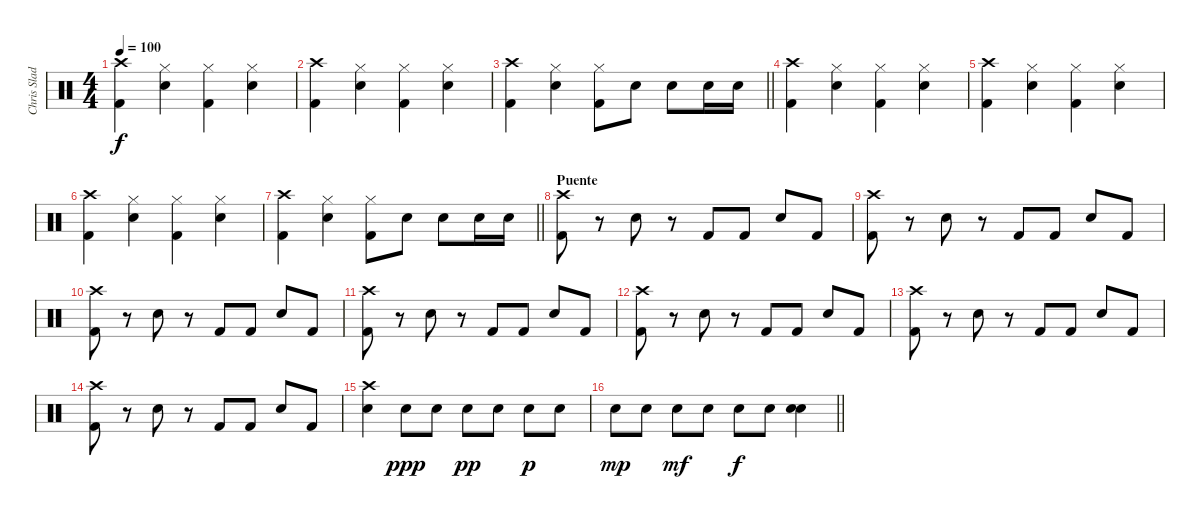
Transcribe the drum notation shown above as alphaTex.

\track ("Chris Slade" "Chris Slad") {instrument percussion}
\staff {score}
\articulation defaults
\ts (4 4)
\tempo 100
\clef neutral
\ks c
("Kick (hit) 2" "Crash high (hit)").4{dy f} ("Snare (hit) 2" "Hi-Hat (closed)").4 ("Kick (hit) 2" "Hi-Hat (closed)").4 ("Snare (hit) 2" "Hi-Hat (closed)").4 |
("Kick (hit) 2" "Crash high (hit)").4 ("Snare (hit) 2" "Hi-Hat (closed)").4 ("Kick (hit) 2" "Hi-Hat (closed)").4 ("Snare (hit) 2" "Hi-Hat (closed)").4 |
\barLineRight lightlight
("Kick (hit) 2" "Crash high (hit)").4 ("Snare (hit) 2" "Hi-Hat (closed)").4 ("Kick (hit) 2" "Hi-Hat (closed)").8 "Snare (hit) 2".8 "Snare (hit) 2".8 "Snare (hit) 2".16 "Snare (hit) 2".16 |
("Kick (hit) 2" "Crash high (hit)").4 ("Snare (hit) 2" "Hi-Hat (closed)").4 ("Kick (hit) 2" "Hi-Hat (closed)").4 ("Snare (hit) 2" "Hi-Hat (closed)").4 |
("Kick (hit) 2" "Crash high (hit)").4 ("Snare (hit) 2" "Hi-Hat (closed)").4 ("Kick (hit) 2" "Hi-Hat (closed)").4 ("Snare (hit) 2" "Hi-Hat (closed)").4 |
("Kick (hit) 2" "Crash high (hit)").4 ("Snare (hit) 2" "Hi-Hat (closed)").4 ("Kick (hit) 2" "Hi-Hat (closed)").4 ("Snare (hit) 2" "Hi-Hat (closed)").4 |
\barLineRight lightlight
("Kick (hit) 2" "Crash high (hit)").4 ("Snare (hit) 2" "Hi-Hat (closed)").4 ("Kick (hit) 2" "Hi-Hat (closed)").8 "Snare (hit) 2".8 "Snare (hit) 2".8 "Snare (hit) 2".16 "Snare (hit) 2".16 |
\section ("" "Puente")
("Kick (hit) 2" "Crash high (hit)").8 r.8 "Snare (hit) 2".8 r.8 "Kick (hit) 2".8 "Kick (hit) 2".8 "Snare (hit) 2".8 "Kick (hit) 2".8 |
("Kick (hit) 2" "Crash high (hit)").8 r.8 "Snare (hit) 2".8 r.8 "Kick (hit) 2".8 "Kick (hit) 2".8 "Snare (hit) 2".8 "Kick (hit) 2".8 |
("Kick (hit) 2" "Crash high (hit)").8 r.8 "Snare (hit) 2".8 r.8 "Kick (hit) 2".8 "Kick (hit) 2".8 "Snare (hit) 2".8 "Kick (hit) 2".8 |
("Kick (hit) 2" "Crash high (hit)").8 r.8 "Snare (hit) 2".8 r.8 "Kick (hit) 2".8 "Kick (hit) 2".8 "Snare (hit) 2".8 "Kick (hit) 2".8 |
("Kick (hit) 2" "Crash high (hit)").8 r.8 "Snare (hit) 2".8 r.8 "Kick (hit) 2".8 "Kick (hit) 2".8 "Snare (hit) 2".8 "Kick (hit) 2".8 |
("Kick (hit) 2" "Crash high (hit)").8 r.8 "Snare (hit) 2".8 r.8 "Kick (hit) 2".8 "Kick (hit) 2".8 "Snare (hit) 2".8 "Kick (hit) 2".8 |
("Kick (hit) 2" "Crash high (hit)").8 r.8 "Snare (hit) 2".8 r.8 "Kick (hit) 2".8 "Kick (hit) 2".8 "Snare (hit) 2".8 "Kick (hit) 2".8 |
("Crash high (hit)" "Snare (hit) 2").4 "Snare (hit) 2".8{dy ppp} "Snare (hit) 2".8 "Snare (hit) 2".8{dy pp} "Snare (hit) 2".8 "Snare (hit) 2".8{dy p} "Snare (hit) 2".8 |
\barLineRight lightlight "Snare (hit) 2".8{dy mp} "Snare (hit) 2".8 "Snare (hit) 2".8{dy mf} "Snare (hit) 2".8 "Snare (hit) 2".8{dy f} "Snare (hit) 2".8
("Snare (hit) 2" "Snare (hit) 2").4{bd 120}
